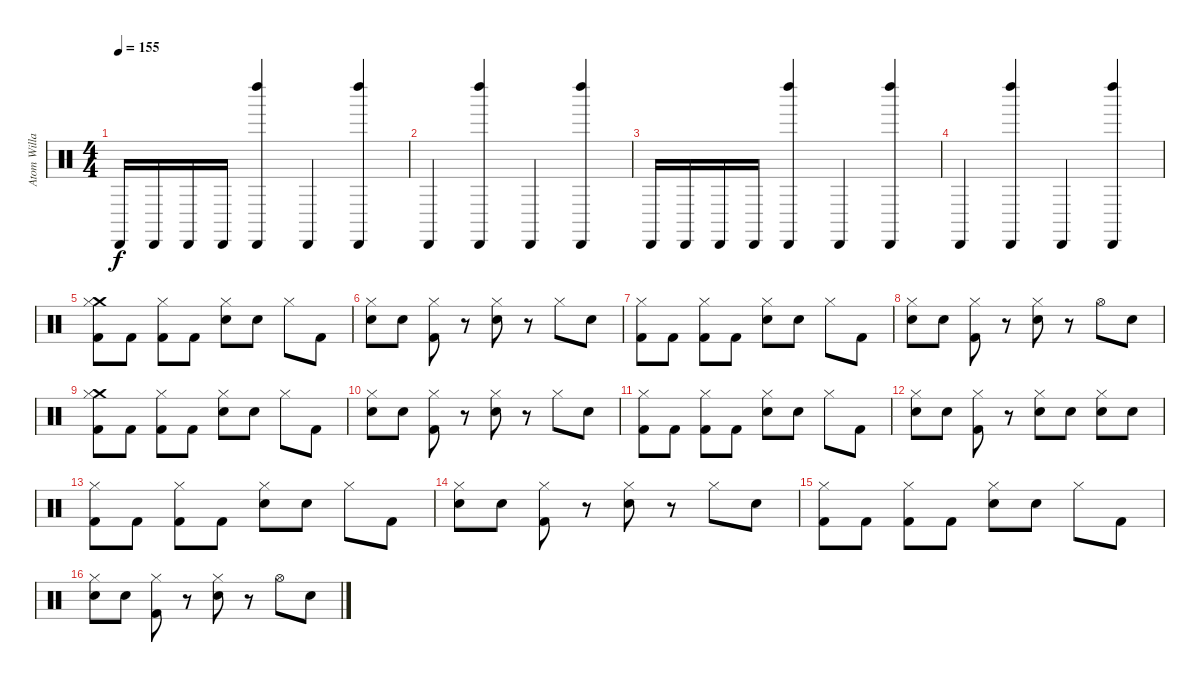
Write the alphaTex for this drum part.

\track ("Atom Willard Drums" "Atom Willa") {instrument percussion}
\staff {score}
\articulation defaults
\ts (4 4)
\tempo 155
\clef neutral
\ks c "Cabasa (hit)".16{dy f} "Cabasa (hit)".16 "Cabasa (hit)".16 "Cabasa (hit)".16
("Cabasa (hit)" "Left Maraca (hit)").4 "Cabasa (hit)".4 ("Cabasa (hit)" "Left Maraca (hit)").4 |
"Cabasa (hit)".4 ("Cabasa (hit)" "Left Maraca (hit)").4 "Cabasa (hit)".4 ("Cabasa (hit)" "Left Maraca (hit)").4 |
"Cabasa (hit)".16 "Cabasa (hit)".16 "Cabasa (hit)".16 "Cabasa (hit)".16 ("Cabasa (hit)" "Left Maraca (hit)").4 "Cabasa (hit)".4 ("Cabasa (hit)" "Left Maraca (hit)").4 |
"Cabasa (hit)".4 ("Cabasa (hit)" "Left Maraca (hit)").4 "Cabasa (hit)".4 ("Cabasa (hit)" "Left Maraca (hit)").4 |
("Crash medium (hit)" "Kick (hit) 2" "Hi-Hat (closed)").8 "Kick (hit) 2".8 ("Kick (hit) 2" "Hi-Hat (closed)").8 "Kick (hit) 2".8 ("Electric Snare (hit)" "Hi-Hat (closed)").8 "Snare (hit)".8 "Hi-Hat (closed)".8 "Kick (hit) 2".8 |
("Snare (hit)" "Hi-Hat (closed)").8 "Electric Snare (hit)".8 ("Kick (hit) 2" "Hi-Hat (closed)").8 r.8 ("Electric Snare (hit)" "Hi-Hat (closed)").8 r.8 "Hi-Hat (closed)".8 "Snare (hit)".8 |
("Kick (hit) 2" "Hi-Hat (closed)").8 "Kick (hit) 2".8 ("Kick (hit) 2" "Hi-Hat (closed)").8 "Kick (hit) 2".8 ("Electric Snare (hit)" "Hi-Hat (closed)").8 "Snare (hit)".8 "Hi-Hat (closed)".8 "Kick (hit) 2".8 |
("Snare (hit)" "Hi-Hat (closed)").8 "Electric Snare (hit)".8 ("Kick (hit) 2" "Hi-Hat (closed)").8 r.8 ("Electric Snare (hit)" "Hi-Hat (closed)").8 r.8 "Hi-Hat (open)".8 "Snare (hit)".8 |
("Crash medium (hit)" "Kick (hit) 2" "Hi-Hat (closed)").8 "Kick (hit) 2".8 ("Kick (hit) 2" "Hi-Hat (closed)").8 "Kick (hit) 2".8 ("Electric Snare (hit)" "Hi-Hat (closed)").8 "Snare (hit)".8 "Hi-Hat (closed)".8 "Kick (hit) 2".8 |
("Snare (hit)" "Hi-Hat (closed)").8 "Electric Snare (hit)".8 ("Kick (hit) 2" "Hi-Hat (closed)").8 r.8 ("Electric Snare (hit)" "Hi-Hat (closed)").8 r.8 "Hi-Hat (closed)".8 "Snare (hit)".8 |
("Kick (hit) 2" "Hi-Hat (closed)").8 "Kick (hit) 2".8 ("Kick (hit) 2" "Hi-Hat (closed)").8 "Kick (hit) 2".8 ("Electric Snare (hit)" "Hi-Hat (closed)").8 "Snare (hit)".8 "Hi-Hat (closed)".8 "Kick (hit) 2".8 |
("Snare (hit)" "Hi-Hat (closed)").8 "Electric Snare (hit)".8 ("Kick (hit) 2" "Hi-Hat (closed)").8 r.8 ("Electric Snare (hit)" "Hi-Hat (closed)").8 "Electric Snare (hit)".8 ("Electric Snare (hit)" "Hi-Hat (closed)").8 "Snare (hit)".8 |
("Kick (hit) 2" "Hi-Hat (closed)").8 "Kick (hit) 2".8 ("Kick (hit) 2" "Hi-Hat (closed)").8 "Kick (hit) 2".8 ("Electric Snare (hit)" "Hi-Hat (closed)").8 "Snare (hit)".8 "Hi-Hat (closed)".8 "Kick (hit) 2".8 |
("Snare (hit)" "Hi-Hat (closed)").8 "Electric Snare (hit)".8 ("Kick (hit) 2" "Hi-Hat (closed)").8 r.8 ("Electric Snare (hit)" "Hi-Hat (closed)").8 r.8 "Hi-Hat (closed)".8 "Snare (hit)".8 |
("Kick (hit) 2" "Hi-Hat (closed)").8 "Kick (hit) 2".8 ("Kick (hit) 2" "Hi-Hat (closed)").8 "Kick (hit) 2".8 ("Electric Snare (hit)" "Hi-Hat (closed)").8 "Snare (hit)".8 "Hi-Hat (closed)".8 "Kick (hit) 2".8 |
("Snare (hit)" "Hi-Hat (closed)").8 "Electric Snare (hit)".8 ("Kick (hit) 2" "Hi-Hat (closed)").8 r.8 ("Electric Snare (hit)" "Hi-Hat (closed)").8 r.8 "Hi-Hat (open)".8 "Snare (hit)".8
